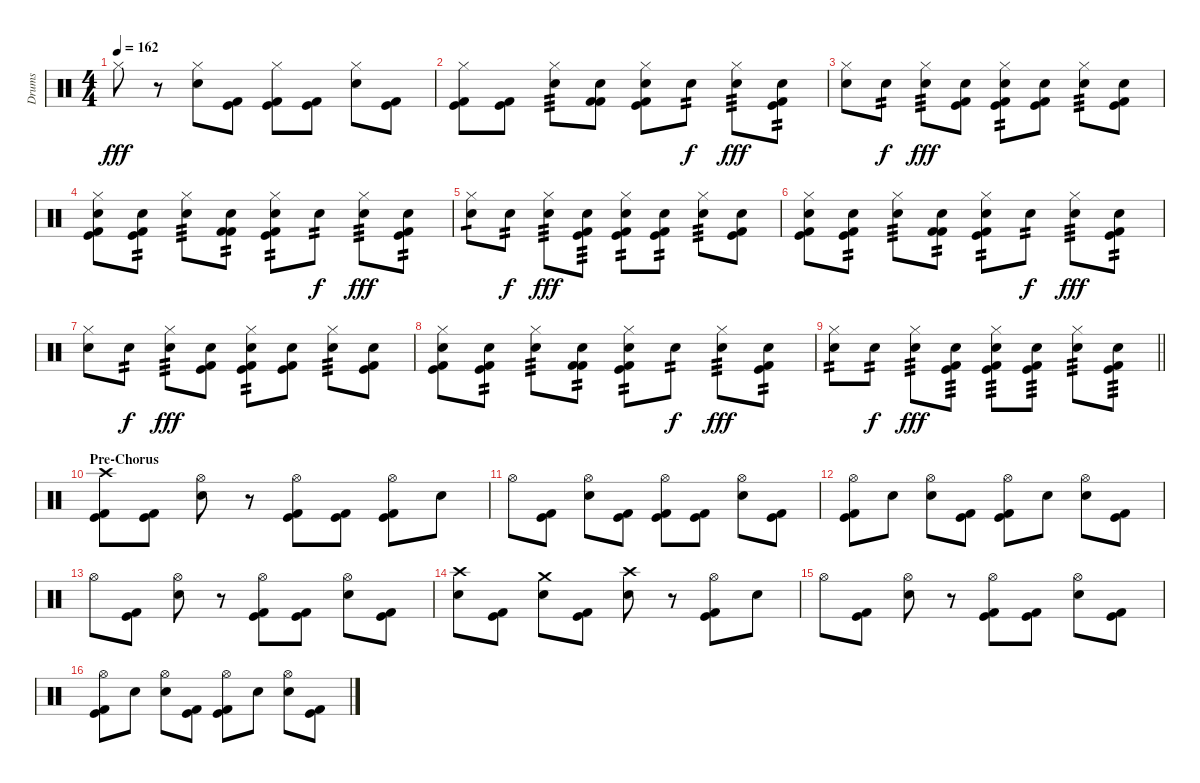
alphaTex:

\track ("Drums" "Drums") {instrument percussion}
\staff {score}
\articulation defaults
\ts (4 4)
\tempo 162
\clef neutral
\ks aminor "Hi-Hat (closed)".8{dy fff}
r.8 ("Hi-Hat (closed)" "Electric Snare (hit)").8 ("Kick (hit)" "Kick (hit) 2").8 ("Hi-Hat (closed)" "Kick (hit)" "Kick (hit) 2").8 ("Kick (hit)" "Kick (hit) 2").8 ("Hi-Hat (closed)" "Electric Snare (hit)").8 ("Kick (hit)" "Kick (hit) 2").8 |
("Hi-Hat (closed)" "Kick (hit)" "Kick (hit) 2").8 ("Kick (hit)" "Kick (hit) 2").8 ("Hi-Hat (closed)" "Electric Snare (hit)").8{tp 3} ("Electric Snare (hit)" "Kick (hit) 2" "Kick (hit) 2").8 ("Hi-Hat (closed)" "Electric Snare (hit)" "Kick (hit)" "Kick (hit) 2").8 "Electric Snare (hit)".8{tp 2 dy f} ("Hi-Hat (closed)" "Electric Snare (hit)").8{tp 3 dy fff} ("Electric Snare (hit)" "Kick (hit)" "Kick (hit) 2").8{tp 2} |
("Hi-Hat (closed)" "Electric Snare (hit)").8 "Electric Snare (hit)".8{tp 2 dy f} ("Hi-Hat (closed)" "Electric Snare (hit)").8{tp 3 dy fff} ("Electric Snare (hit)" "Kick (hit)" "Kick (hit) 2").8 ("Hi-Hat (closed)" "Electric Snare (hit)" "Kick (hit)" "Kick (hit) 2").8{tp 2} ("Electric Snare (hit)" "Kick (hit)" "Kick (hit) 2").8 ("Hi-Hat (closed)" "Electric Snare (hit)").8{tp 3} ("Electric Snare (hit)" "Kick (hit)" "Kick (hit) 2").8 |
("Hi-Hat (closed)" "Electric Snare (hit)" "Kick (hit)" "Kick (hit) 2").8 ("Electric Snare (hit)" "Kick (hit)" "Kick (hit) 2").8{tp 2} ("Hi-Hat (closed)" "Electric Snare (hit)").8{tp 3} ("Electric Snare (hit)" "Kick (hit) 2" "Kick (hit) 2").8{tp 2} ("Hi-Hat (closed)" "Electric Snare (hit)" "Kick (hit)" "Kick (hit) 2").8{tp 2} "Electric Snare (hit)".8{tp 2 dy f} ("Hi-Hat (closed)" "Electric Snare (hit)").8{tp 3 dy fff} ("Electric Snare (hit)" "Kick (hit)" "Kick (hit) 2").8{tp 2} |
("Hi-Hat (closed)" "Electric Snare (hit)").8{tp 1} "Electric Snare (hit)".8{tp 2 dy f} ("Hi-Hat (closed)" "Electric Snare (hit)").8{tp 3 dy fff} ("Electric Snare (hit)" "Kick (hit)" "Kick (hit) 2").8{tp 3} ("Hi-Hat (closed)" "Electric Snare (hit)" "Kick (hit)" "Kick (hit) 2").8{tp 2} ("Electric Snare (hit)" "Kick (hit)" "Kick (hit) 2").8{tp 2} ("Hi-Hat (closed)" "Electric Snare (hit)").8{tp 3} ("Electric Snare (hit)" "Kick (hit)" "Kick (hit) 2").8 |
("Hi-Hat (closed)" "Electric Snare (hit)" "Kick (hit)" "Kick (hit) 2").8 ("Electric Snare (hit)" "Kick (hit)" "Kick (hit) 2").8{tp 2} ("Hi-Hat (closed)" "Electric Snare (hit)").8{tp 3} ("Electric Snare (hit)" "Kick (hit) 2" "Kick (hit) 2").8{tp 2} ("Hi-Hat (closed)" "Electric Snare (hit)" "Kick (hit)" "Kick (hit) 2").8{tp 2} "Electric Snare (hit)".8{tp 2 dy f} ("Hi-Hat (closed)" "Electric Snare (hit)").8{tp 3 dy fff} ("Electric Snare (hit)" "Kick (hit)" "Kick (hit) 2").8{tp 2} |
("Hi-Hat (closed)" "Electric Snare (hit)").8 "Electric Snare (hit)".8{tp 2 dy f} ("Hi-Hat (closed)" "Electric Snare (hit)").8{tp 3 dy fff} ("Electric Snare (hit)" "Kick (hit)" "Kick (hit) 2").8 ("Hi-Hat (closed)" "Electric Snare (hit)" "Kick (hit)" "Kick (hit) 2").8{tp 2} ("Electric Snare (hit)" "Kick (hit)" "Kick (hit) 2").8 ("Hi-Hat (closed)" "Electric Snare (hit)").8{tp 3} ("Electric Snare (hit)" "Kick (hit)" "Kick (hit) 2").8 |
("Hi-Hat (closed)" "Electric Snare (hit)" "Kick (hit)" "Kick (hit) 2").8 ("Electric Snare (hit)" "Kick (hit)" "Kick (hit) 2").8{tp 2} ("Hi-Hat (closed)" "Electric Snare (hit)").8{tp 3} ("Electric Snare (hit)" "Kick (hit) 2" "Kick (hit) 2").8{tp 2} ("Hi-Hat (closed)" "Electric Snare (hit)" "Kick (hit)" "Kick (hit) 2").8{tp 2} "Electric Snare (hit)".8{tp 2 dy f} ("Hi-Hat (closed)" "Electric Snare (hit)").8{tp 3 dy fff} ("Electric Snare (hit)" "Kick (hit)" "Kick (hit) 2").8{tp 2} |
\barLineRight lightlight
("Hi-Hat (closed)" "Electric Snare (hit)").8{tp 2} "Electric Snare (hit)".8{tp 2 dy f} ("Hi-Hat (closed)" "Electric Snare (hit)").8{tp 3 dy fff} ("Electric Snare (hit)" "Kick (hit)" "Kick (hit) 2").8{tp 3} ("Hi-Hat (closed)" "Electric Snare (hit)" "Kick (hit)" "Kick (hit) 2").8{tp 3} ("Electric Snare (hit)" "Kick (hit)" "Kick (hit) 2").8{tp 3} ("Hi-Hat (closed)" "Electric Snare (hit)").8{tp 3} ("Electric Snare (hit)" "Kick (hit)" "Kick (hit) 2").8{tp 3} |
\section ("" "Pre-Chorus")
\ks c
("Crash high (hit)" "Kick (hit)" "Kick (hit) 2").8 ("Kick (hit)" "Kick (hit) 2").8 ("Hi-Hat (open)" "Electric Snare (hit)").8 r.8 ("Hi-Hat (open)" "Kick (hit)" "Kick (hit) 2").8 ("Kick (hit)" "Kick (hit) 2").8 ("Hi-Hat (open)" "Kick (hit)" "Kick (hit) 2").8 "Electric Snare (hit)".8 |
"Hi-Hat (open)".8 ("Kick (hit)" "Kick (hit) 2").8 ("Hi-Hat (open)" "Electric Snare (hit)").8 ("Kick (hit)" "Kick (hit) 2").8 ("Hi-Hat (open)" "Kick (hit)" "Kick (hit) 2").8 ("Kick (hit)" "Kick (hit) 2").8 ("Hi-Hat (open)" "Electric Snare (hit)").8 ("Kick (hit)" "Kick (hit) 2").8 |
("Hi-Hat (open)" "Kick (hit)" "Kick (hit) 2").8 "Electric Snare (hit)".8 ("Hi-Hat (open)" "Electric Snare (hit)").8 ("Kick (hit)" "Kick (hit) 2").8 ("Hi-Hat (open)" "Kick (hit)" "Kick (hit) 2").8 "Electric Snare (hit)".8 ("Hi-Hat (open)" "Electric Snare (hit)").8 ("Kick (hit)" "Kick (hit) 2").8 |
"Hi-Hat (open)".8 ("Kick (hit)" "Kick (hit) 2").8 ("Hi-Hat (open)" "Electric Snare (hit)").8 r.8 ("Hi-Hat (open)" "Kick (hit)" "Kick (hit) 2").8 ("Kick (hit)" "Kick (hit) 2").8 ("Hi-Hat (open)" "Electric Snare (hit)").8 ("Kick (hit)" "Kick (hit) 2").8 |
("Crash high (hit)" "Electric Snare (hit)").8 ("Kick (hit)" "Kick (hit) 2").8 ("Crash medium (hit)" "Electric Snare (hit)").8 ("Kick (hit)" "Kick (hit) 2").8 ("Crash high (hit)" "Electric Snare (hit)").8 r.8 ("Hi-Hat (open)" "Kick (hit)" "Kick (hit) 2").8 "Electric Snare (hit)".8 |
"Hi-Hat (open)".8 ("Kick (hit)" "Kick (hit) 2").8 ("Hi-Hat (open)" "Electric Snare (hit)").8 r.8 ("Hi-Hat (open)" "Kick (hit)" "Kick (hit) 2").8 ("Kick (hit)" "Kick (hit) 2").8 ("Hi-Hat (open)" "Electric Snare (hit)").8 ("Kick (hit)" "Kick (hit) 2").8 |
("Hi-Hat (open)" "Kick (hit)" "Kick (hit) 2").8 "Electric Snare (hit)".8 ("Hi-Hat (open)" "Electric Snare (hit)").8 ("Kick (hit)" "Kick (hit) 2").8 ("Hi-Hat (open)" "Kick (hit)" "Kick (hit) 2").8 "Electric Snare (hit)".8 ("Hi-Hat (open)" "Electric Snare (hit)").8 ("Kick (hit)" "Kick (hit) 2").8
